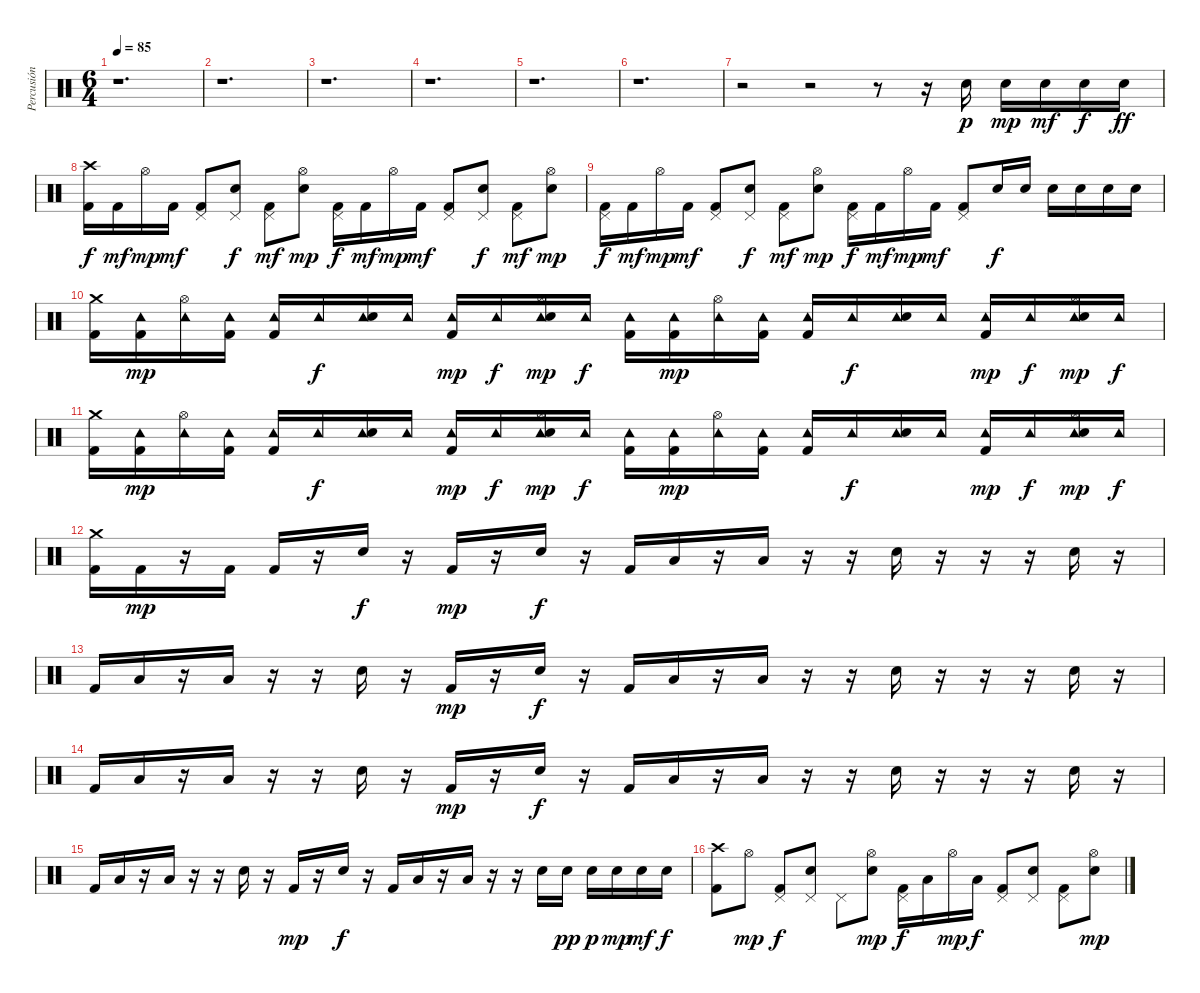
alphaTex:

\track ("Percusión" "Percusión") {instrument percussion}
\staff {score}
\articulation defaults
\ts (6 4)
\tempo 85
\clef neutral
\ks c
r.1{d dy p} |
r.1{d} |
r.1{d} |
r.1{d} |
r.1{d} |
r.1{d} |
r.2 r.2 r.8 r.16 "Electric Snare (hit)".16 "Electric Snare (hit)".16{dy mp} "Electric Snare (hit)".16{dy mf} "Electric Snare (hit)".16{dy f} "Electric Snare (hit)".16{dy ff} |
("Crash high (hit)" "Kick (hit) 2").16{dy f} "Kick (hit) 2".16{dy mf} "Hi-Hat (open)".16{dy mp} "Kick (hit) 2".16{dy mf} ("Pedal Hi-Hat (hit)" "Kick (hit) 2").8 ("Pedal Hi-Hat (hit)" "Electric Snare (hit)").8{dy f} ("Pedal Hi-Hat (hit)" "Kick (hit) 2").8{dy mf} ("Hi-Hat (open)" "Electric Snare (hit)").8{dy mp} ("Pedal Hi-Hat (hit)" "Kick (hit) 2").16{dy f} "Kick (hit) 2".16{dy mf} "Hi-Hat (open)".16{dy mp} "Kick (hit) 2".16{dy mf} ("Pedal Hi-Hat (hit)" "Kick (hit) 2").8 ("Pedal Hi-Hat (hit)" "Electric Snare (hit)").8{dy f} ("Pedal Hi-Hat (hit)" "Kick (hit) 2").8{dy mf} ("Hi-Hat (open)" "Electric Snare (hit)").8{dy mp} |
("Pedal Hi-Hat (hit)" "Kick (hit) 2").16{dy f} "Kick (hit) 2".16{dy mf} "Hi-Hat (open)".16{dy mp} "Kick (hit) 2".16{dy mf} ("Pedal Hi-Hat (hit)" "Kick (hit) 2").8 ("Pedal Hi-Hat (hit)" "Electric Snare (hit)").8{dy f} ("Pedal Hi-Hat (hit)" "Kick (hit) 2").8{dy mf} ("Hi-Hat (open)" "Electric Snare (hit)").8{dy mp} ("Pedal Hi-Hat (hit)" "Kick (hit) 2").16{dy f} "Kick (hit) 2".16{dy mf} "Hi-Hat (open)".16{dy mp} "Kick (hit) 2".16{dy mf} ("Pedal Hi-Hat (hit)" "Kick (hit) 2").8 "Electric Snare (hit)".16{dy f} "Electric Snare (hit)".16 "Electric Snare (hit)".16 "Electric Snare (hit)".16 "Electric Snare (hit)".16 "Electric Snare (hit)".16 |
("Crash medium (hit)" "Kick (hit) 2").16 ("Tambourine (hit)" "Kick (hit) 2").16{dy mp} ("Hi-Hat (open)" "Tambourine (hit)").16 ("Tambourine (hit)" "Kick (hit) 2").16 ("Tambourine (hit)" "Kick (hit) 2").16 "Tambourine (hit)".16{dy f} ("Tambourine (hit)" "Electric Snare (hit)").16 "Tambourine (hit)".16 ("Tambourine (hit)" "Kick (hit) 2").16{dy mp} "Tambourine (hit)".16{dy f} ("Hi-Hat (open)" "Tambourine (hit)" "Electric Snare (hit)").16{dy mp} "Tambourine (hit)".16{dy f} ("Tambourine (hit)" "Kick (hit) 2").16 ("Tambourine (hit)" "Kick (hit) 2").16{dy mp} ("Hi-Hat (open)" "Tambourine (hit)").16 ("Tambourine (hit)" "Kick (hit) 2").16 ("Tambourine (hit)" "Kick (hit) 2").16 "Tambourine (hit)".16{dy f} ("Tambourine (hit)" "Electric Snare (hit)").16 "Tambourine (hit)".16 ("Tambourine (hit)" "Kick (hit) 2").16{dy mp} "Tambourine (hit)".16{dy f} ("Hi-Hat (open)" "Tambourine (hit)" "Electric Snare (hit)").16{dy mp} "Tambourine (hit)".16{dy f} |
("Crash medium (hit)" "Kick (hit) 2").16 ("Tambourine (hit)" "Kick (hit) 2").16{dy mp} ("Hi-Hat (open)" "Tambourine (hit)").16 ("Tambourine (hit)" "Kick (hit) 2").16 ("Tambourine (hit)" "Kick (hit) 2").16 "Tambourine (hit)".16{dy f} ("Tambourine (hit)" "Electric Snare (hit)").16 "Tambourine (hit)".16 ("Tambourine (hit)" "Kick (hit) 2").16{dy mp} "Tambourine (hit)".16{dy f} ("Hi-Hat (open)" "Tambourine (hit)" "Electric Snare (hit)").16{dy mp} "Tambourine (hit)".16{dy f} ("Tambourine (hit)" "Kick (hit) 2").16 ("Tambourine (hit)" "Kick (hit) 2").16{dy mp} ("Hi-Hat (open)" "Tambourine (hit)").16 ("Tambourine (hit)" "Kick (hit) 2").16 ("Tambourine (hit)" "Kick (hit) 2").16 "Tambourine (hit)".16{dy f} ("Tambourine (hit)" "Electric Snare (hit)").16 "Tambourine (hit)".16 ("Tambourine (hit)" "Kick (hit) 2").16{dy mp} "Tambourine (hit)".16{dy f} ("Hi-Hat (open)" "Tambourine (hit)" "Electric Snare (hit)").16{dy mp} "Tambourine (hit)".16{dy f} |
("Crash medium (hit)" "Kick (hit) 2").16 "Kick (hit) 2".16{dy mp} r.16 "Kick (hit) 2".16 "Kick (hit) 2".16 r.16 "Electric Snare (hit)".16{dy f} r.16 "Kick (hit) 2".16{dy mp} r.16 "Electric Snare (hit)".16{dy f} r.16 "Kick (hit) 2".16 "Low Floor Tom (hit)".16 r.16 "Low Floor Tom (hit)".16 r.16 r.16 "Electric Snare (hit)".16 r.16 r.16 r.16 "Electric Snare (hit)".16 r.16 |
"Kick (hit) 2".16 "Low Floor Tom (hit)".16 r.16 "Low Floor Tom (hit)".16 r.16 r.16 "Electric Snare (hit)".16 r.16 "Kick (hit) 2".16{dy mp} r.16 "Electric Snare (hit)".16{dy f} r.16 "Kick (hit) 2".16 "Low Floor Tom (hit)".16 r.16 "Low Floor Tom (hit)".16 r.16 r.16 "Electric Snare (hit)".16 r.16 r.16 r.16 "Electric Snare (hit)".16 r.16 |
"Kick (hit) 2".16 "Low Floor Tom (hit)".16 r.16 "Low Floor Tom (hit)".16 r.16 r.16 "Electric Snare (hit)".16 r.16 "Kick (hit) 2".16{dy mp} r.16 "Electric Snare (hit)".16{dy f} r.16 "Kick (hit) 2".16 "Low Floor Tom (hit)".16 r.16 "Low Floor Tom (hit)".16 r.16 r.16 "Electric Snare (hit)".16 r.16 r.16 r.16 "Electric Snare (hit)".16 r.16 |
"Kick (hit) 2".16 "Low Floor Tom (hit)".16 r.16 "Low Floor Tom (hit)".16 r.16 r.16 "Electric Snare (hit)".16 r.16 "Kick (hit) 2".16{dy mp} r.16 "Electric Snare (hit)".16{dy f} r.16 "Kick (hit) 2".16 "Low Floor Tom (hit)".16 r.16 "Low Floor Tom (hit)".16 r.16 r.16 "Electric Snare (hit)".16 "Electric Snare (hit)".16{dy pp} "Electric Snare (hit)".16{dy p} "Electric Snare (hit)".16{dy mp} "Electric Snare (hit)".16{dy mf} "Electric Snare (hit)".16{dy f} |
("Crash high (hit)" "Kick (hit) 2").8 "Hi-Hat (open)".8{dy mp} ("Pedal Hi-Hat (hit)" "Kick (hit) 2").8{dy f} ("Pedal Hi-Hat (hit)" "Electric Snare (hit)").8 "Pedal Hi-Hat (hit)".8 ("Hi-Hat (open)" "Electric Snare (hit)").8{dy mp} ("Pedal Hi-Hat (hit)" "Kick (hit) 2").16{dy f} "Low Floor Tom (hit)".16 "Hi-Hat (open)".16{dy mp} "Low Floor Tom (hit)".16{dy f} ("Pedal Hi-Hat (hit)" "Kick (hit) 2").8 ("Pedal Hi-Hat (hit)" "Electric Snare (hit)").8 ("Pedal Hi-Hat (hit)" "Kick (hit) 2").8 ("Hi-Hat (open)" "Electric Snare (hit)").8{dy mp}
